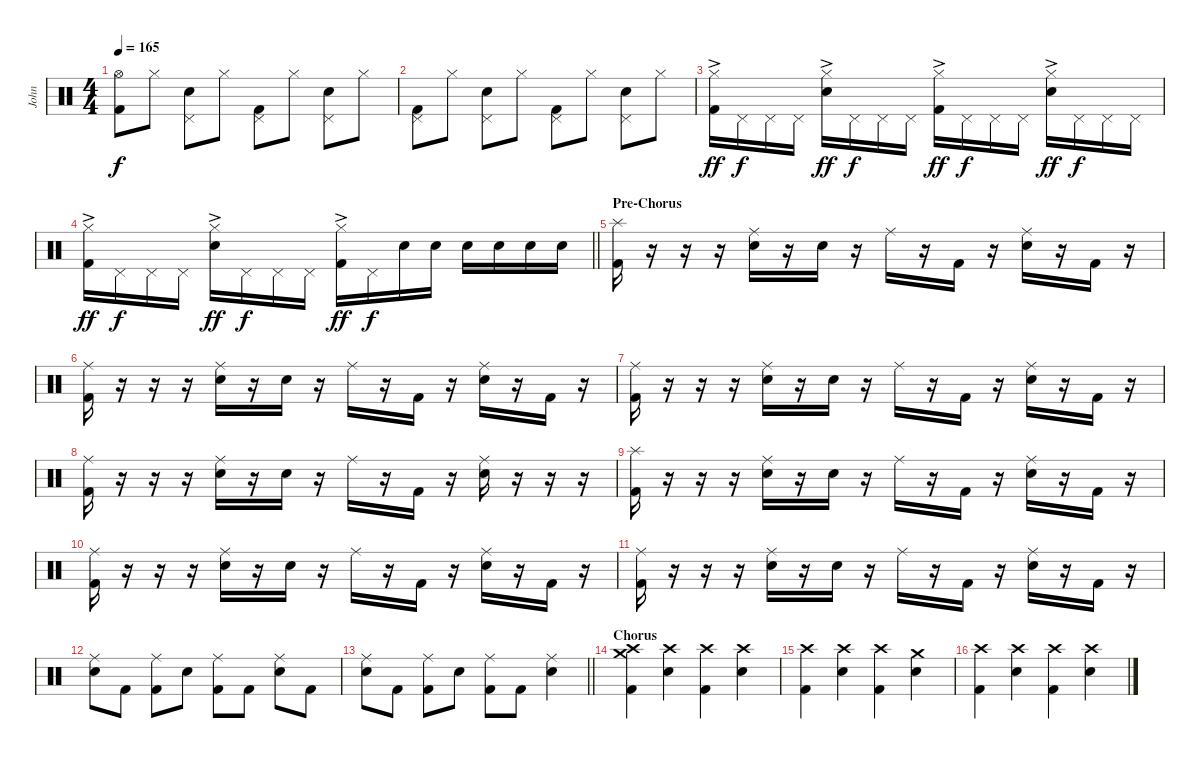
\track ("John" "John") {instrument percussion}
\staff {score}
\articulation defaults
\ts (4 4)
\tempo 165
\clef neutral
\ks c
("Hi-Hat (open)" "Kick (hit) 2").8{dy f} "Hi-Hat (closed)".8 ("Pedal Hi-Hat (hit)" "Electric Snare (hit)").8 "Hi-Hat (closed)".8 ("Pedal Hi-Hat (hit)" "Kick (hit) 2").8 "Hi-Hat (closed)".8 ("Pedal Hi-Hat (hit)" "Electric Snare (hit)").8 "Hi-Hat (closed)".8 |
("Pedal Hi-Hat (hit)" "Kick (hit) 2").8 "Hi-Hat (closed)".8 ("Pedal Hi-Hat (hit)" "Electric Snare (hit)").8 "Hi-Hat (closed)".8 ("Pedal Hi-Hat (hit)" "Kick (hit) 2").8 "Hi-Hat (closed)".8 ("Pedal Hi-Hat (hit)" "Electric Snare (hit)").8 "Hi-Hat (closed)".8 |
("Hi-Hat (closed)"{ac} "Kick (hit) 2").16{dy ff} "Pedal Hi-Hat (hit)".16{dy f} "Pedal Hi-Hat (hit)".16 "Pedal Hi-Hat (hit)".16 ("Hi-Hat (closed)"{ac} "Electric Snare (hit)").16{dy ff} "Pedal Hi-Hat (hit)".16{dy f} "Pedal Hi-Hat (hit)".16 "Pedal Hi-Hat (hit)".16 ("Hi-Hat (closed)"{ac} "Kick (hit) 2").16{dy ff} "Pedal Hi-Hat (hit)".16{dy f} "Pedal Hi-Hat (hit)".16 "Pedal Hi-Hat (hit)".16 ("Hi-Hat (closed)"{ac} "Electric Snare (hit)").16{dy ff} "Pedal Hi-Hat (hit)".16{dy f} "Pedal Hi-Hat (hit)".16 "Pedal Hi-Hat (hit)".16 |
\barLineRight lightlight
("Hi-Hat (closed)"{ac} "Kick (hit) 2").16{dy ff} "Pedal Hi-Hat (hit)".16{dy f} "Pedal Hi-Hat (hit)".16 "Pedal Hi-Hat (hit)".16 ("Hi-Hat (closed)"{ac} "Electric Snare (hit)").16{dy ff} "Pedal Hi-Hat (hit)".16{dy f} "Pedal Hi-Hat (hit)".16 "Pedal Hi-Hat (hit)".16 ("Hi-Hat (closed)"{ac} "Kick (hit) 2").16{dy ff} "Pedal Hi-Hat (hit)".16{dy f} "Electric Snare (hit)".16 "Electric Snare (hit)".16 "Electric Snare (hit)".16 "Electric Snare (hit)".16 "Electric Snare (hit)".16 "Electric Snare (hit)".16 |
\section ("" "Pre-Chorus")
("Splash (hit)" "Kick (hit) 2").16 r.16 r.16 r.16 ("Ride (middle)" "Electric Snare (hit)").16 r.16 "Electric Snare (hit)".16 r.16 "Ride (middle)".16 r.16 "Kick (hit) 2".16 r.16 ("Ride (middle)" "Electric Snare (hit)").16 r.16 "Kick (hit) 2".16 r.16 |
("Ride (middle)" "Kick (hit) 2").16 r.16 r.16 r.16 ("Ride (middle)" "Electric Snare (hit)").16 r.16 "Electric Snare (hit)".16 r.16 "Ride (middle)".16 r.16 "Kick (hit) 2".16 r.16 ("Ride (middle)" "Electric Snare (hit)").16 r.16 "Kick (hit) 2".16 r.16 |
("Ride (middle)" "Kick (hit) 2").16 r.16 r.16 r.16 ("Ride (middle)" "Electric Snare (hit)").16 r.16 "Electric Snare (hit)".16 r.16 "Ride (middle)".16 r.16 "Kick (hit) 2".16 r.16 ("Ride (middle)" "Electric Snare (hit)").16 r.16 "Kick (hit) 2".16 r.16 |
("Ride (middle)" "Kick (hit) 2").16 r.16 r.16 r.16 ("Ride (middle)" "Electric Snare (hit)").16 r.16 "Electric Snare (hit)".16 r.16 "Ride (middle)".16 r.16 "Kick (hit) 2".16 r.16 ("Ride (middle)" "Electric Snare (hit)").16 r.16 r.16 r.16 |
("Splash (hit)" "Kick (hit) 2").16 r.16 r.16 r.16 ("Ride (middle)" "Electric Snare (hit)").16 r.16 "Electric Snare (hit)".16 r.16 "Ride (middle)".16 r.16 "Kick (hit) 2".16 r.16 ("Ride (middle)" "Electric Snare (hit)").16 r.16 "Kick (hit) 2".16 r.16 |
("Ride (middle)" "Kick (hit) 2").16 r.16 r.16 r.16 ("Ride (middle)" "Electric Snare (hit)").16 r.16 "Electric Snare (hit)".16 r.16 "Ride (middle)".16 r.16 "Kick (hit) 2".16 r.16 ("Ride (middle)" "Electric Snare (hit)").16 r.16 "Kick (hit) 2".16 r.16 |
("Ride (middle)" "Kick (hit) 2").16 r.16 r.16 r.16 ("Ride (middle)" "Electric Snare (hit)").16 r.16 "Electric Snare (hit)".16 r.16 "Ride (middle)".16 r.16 "Kick (hit) 2".16 r.16 ("Ride (middle)" "Electric Snare (hit)").16 r.16 "Kick (hit) 2".16 r.16 |
("Ride (middle)" "Electric Snare (hit)").8 "Kick (hit) 2".8 ("Ride (middle)" "Kick (hit) 2").8 "Electric Snare (hit)".8 ("Ride (middle)" "Kick (hit) 2").8 "Kick (hit) 2".8 ("Ride (middle)" "Electric Snare (hit)").8 "Kick (hit) 2".8 |
\barLineRight lightlight
("Ride (middle)" "Electric Snare (hit)").8 "Kick (hit) 2".8 ("Ride (middle)" "Kick (hit) 2").8 "Electric Snare (hit)".8 ("Ride (middle)" "Kick (hit) 2").8 "Kick (hit) 2".8 ("Ride (middle)" "Electric Snare (hit)").4 |
\section ("" "Chorus")
("Crash medium (hit)" "Crash high (hit)" "Kick (hit) 2").4 ("Crash high (hit)" "Electric Snare (hit)").4 ("Crash high (hit)" "Kick (hit) 2").4 ("Crash high (hit)" "Electric Snare (hit)").4 |
("Crash high (hit)" "Kick (hit) 2").4 ("Crash high (hit)" "Electric Snare (hit)").4 ("Crash high (hit)" "Kick (hit) 2").4 ("Crash medium (hit)" "Electric Snare (hit)").4 |
("Crash high (hit)" "Kick (hit) 2").4 ("Crash high (hit)" "Electric Snare (hit)").4 ("Crash high (hit)" "Kick (hit) 2").4 ("Crash high (hit)" "Electric Snare (hit)").4
